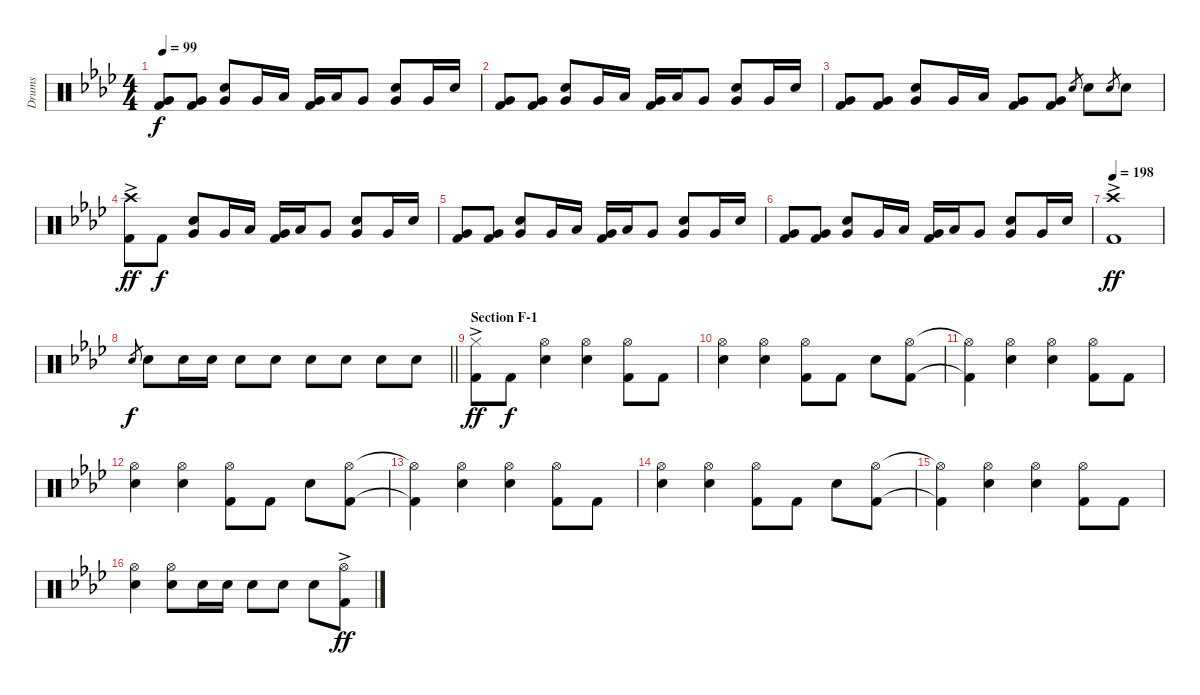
\track ("Drums" "Drums") {instrument percussion}
\staff {score}
\articulation defaults
\ts (4 4)
\tempo 99
\clef neutral
\ks ab
("Very Low Tom (hit)" "Kick (hit) 2").8{dy f} ("Very Low Tom (hit)" "Kick (hit) 2").8 ("Snare (hit) 2" "Very Low Tom (hit)").8 "Very Low Tom (hit)".16 "Low Tom (hit)".16 ("Very Low Tom (hit)" "Kick (hit) 2").16 "Low Tom (hit)".16 "Very Low Tom (hit)".8 ("Snare (hit) 2" "Very Low Tom (hit)").8 "Very Low Tom (hit)".16 "Snare (hit) 2".16 |
("Very Low Tom (hit)" "Kick (hit) 2").8 ("Very Low Tom (hit)" "Kick (hit) 2").8 ("Snare (hit) 2" "Very Low Tom (hit)").8 "Very Low Tom (hit)".16 "Low Tom (hit)".16 ("Very Low Tom (hit)" "Kick (hit) 2").16 "Low Tom (hit)".16 "Very Low Tom (hit)".8 ("Snare (hit) 2" "Very Low Tom (hit)").8 "Very Low Tom (hit)".16 "Snare (hit) 2".16 |
("Very Low Tom (hit)" "Kick (hit) 2").8 ("Very Low Tom (hit)" "Kick (hit) 2").8 ("Snare (hit) 2" "Very Low Tom (hit)").8 "Very Low Tom (hit)".16 "Low Tom (hit)".16 ("Very Low Tom (hit)" "Kick (hit) 2").8 ("Very Low Tom (hit)" "Kick (hit) 2").8 "Snare (hit) 2".8{gr} "Snare (hit) 2".8 "Snare (hit) 2".8{gr} "Snare (hit) 2".8 |
("Crash high (hit)"{ac} "Kick (hit) 2").8{dy ff} "Kick (hit) 2".8{dy f} ("Snare (hit) 2" "Very Low Tom (hit)").8 "Very Low Tom (hit)".16 "Low Tom (hit)".16 ("Very Low Tom (hit)" "Kick (hit) 2").16 "Low Tom (hit)".16 "Very Low Tom (hit)".8 ("Snare (hit) 2" "Very Low Tom (hit)").8 "Very Low Tom (hit)".16 "Snare (hit) 2".16 |
("Very Low Tom (hit)" "Kick (hit) 2").8 ("Very Low Tom (hit)" "Kick (hit) 2").8 ("Snare (hit) 2" "Very Low Tom (hit)").8 "Very Low Tom (hit)".16 "Low Tom (hit)".16 ("Very Low Tom (hit)" "Kick (hit) 2").16 "Low Tom (hit)".16 "Very Low Tom (hit)".8 ("Snare (hit) 2" "Very Low Tom (hit)").8 "Very Low Tom (hit)".16 "Snare (hit) 2".16 |
("Very Low Tom (hit)" "Kick (hit) 2").8 ("Very Low Tom (hit)" "Kick (hit) 2").8 ("Snare (hit) 2" "Very Low Tom (hit)").8 "Very Low Tom (hit)".16 "Low Tom (hit)".16 ("Very Low Tom (hit)" "Kick (hit) 2").16 "Low Tom (hit)".16 "Very Low Tom (hit)".8 ("Snare (hit) 2" "Very Low Tom (hit)").8 "Very Low Tom (hit)".16 "Snare (hit) 2".16 |
\tempo 198
("Crash high (hit)"{ac} "Kick (hit) 2").1{dy ff} |
\barLineRight lightlight "Snare (hit) 2".8{gr dy f} "Snare (hit) 2".8 "Snare (hit) 2".16 "Snare (hit) 2".16 "Snare (hit) 2".8 "Snare (hit) 2".8 "Snare (hit) 2".8 "Snare (hit) 2".8 "Snare (hit) 2".8 "Snare (hit) 2".8
|
\section ("" "Section F-1")
("Hi-Hat (closed)"{ac} "Kick (hit) 2").8{dy ff} "Kick (hit) 2".8{dy f} ("Hi-Hat (open)" "Snare (hit) 2").4 ("Hi-Hat (open)" "Snare (hit) 2").4 ("Hi-Hat (open)" "Kick (hit) 2").8 "Kick (hit) 2".8 |
("Hi-Hat (open)" "Snare (hit) 2").4 ("Hi-Hat (open)" "Snare (hit) 2").4 ("Hi-Hat (open)" "Kick (hit) 2").8 "Kick (hit) 2".8 "Snare (hit) 2".8 ("Hi-Hat (open)" "Kick (hit) 2").8 |
("Hi-Hat (open)"{t} "Kick (hit) 2"{t}).4 ("Hi-Hat (open)" "Snare (hit) 2").4 ("Hi-Hat (open)" "Snare (hit) 2").4 ("Hi-Hat (open)" "Kick (hit) 2").8 "Kick (hit) 2".8 |
("Hi-Hat (open)" "Snare (hit) 2").4 ("Hi-Hat (open)" "Snare (hit) 2").4 ("Hi-Hat (open)" "Kick (hit) 2").8 "Kick (hit) 2".8 "Snare (hit) 2".8 ("Hi-Hat (open)" "Kick (hit) 2").8 |
("Hi-Hat (open)"{t} "Kick (hit) 2"{t}).4 ("Hi-Hat (open)" "Snare (hit) 2").4 ("Hi-Hat (open)" "Snare (hit) 2").4 ("Hi-Hat (open)" "Kick (hit) 2").8 "Kick (hit) 2".8 |
("Hi-Hat (open)" "Snare (hit) 2").4 ("Hi-Hat (open)" "Snare (hit) 2").4 ("Hi-Hat (open)" "Kick (hit) 2").8 "Kick (hit) 2".8 "Snare (hit) 2".8 ("Hi-Hat (open)" "Kick (hit) 2").8 |
("Hi-Hat (open)"{t} "Kick (hit) 2"{t}).4 ("Hi-Hat (open)" "Snare (hit) 2").4 ("Hi-Hat (open)" "Snare (hit) 2").4 ("Hi-Hat (open)" "Kick (hit) 2").8 "Kick (hit) 2".8 |
("Hi-Hat (open)" "Snare (hit) 2").4 ("Hi-Hat (open)" "Snare (hit) 2").8 "Snare (hit) 2".16 "Snare (hit) 2".16 "Snare (hit) 2".8 "Snare (hit) 2".8 "Snare (hit) 2".8 ("Hi-Hat (open)"{ac} "Kick (hit) 2").8{dy ff}
